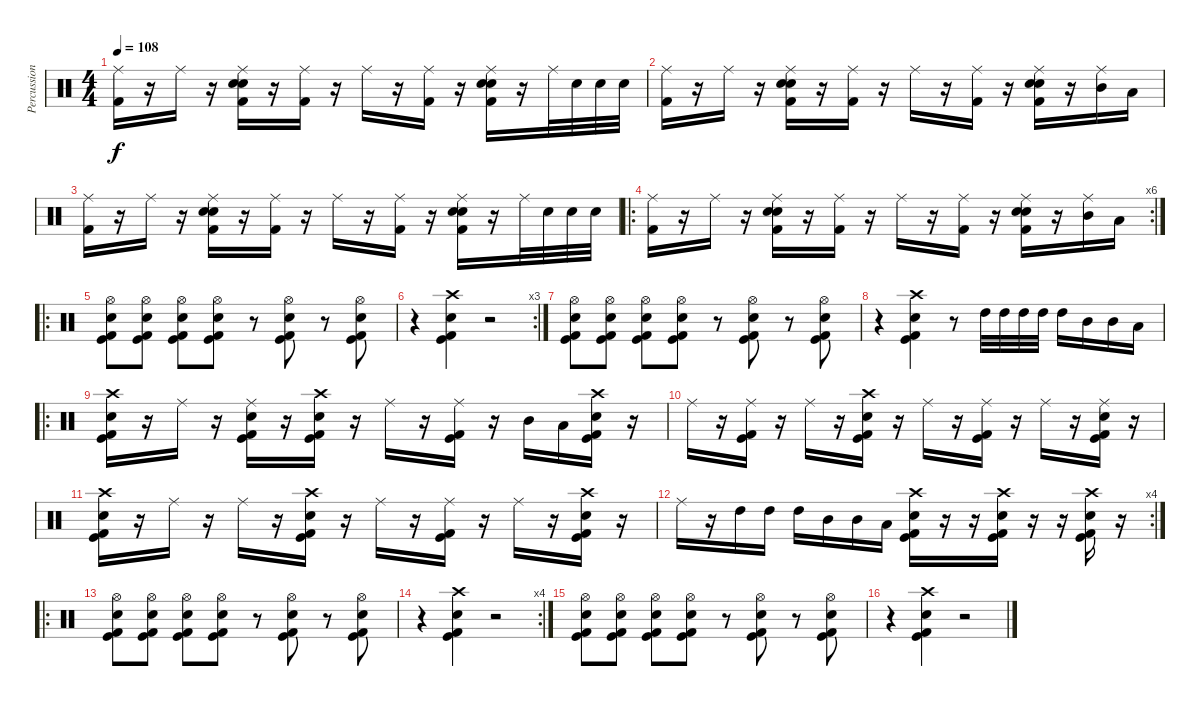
\track ("Percussions" "Percussion") {instrument percussion}
\staff {score}
\articulation defaults
\ts (4 4)
\tempo 108
\clef neutral
\ks c
("Ride (middle)" "Kick (hit) 2").16{dy f} r.16 "Ride (middle)".16 r.16 ("Ride (middle)" "Kick (hit) 2" "Snare (hit) 2" "Electric Snare (hit)").16 r.16 ("Ride (middle)" "Kick (hit) 2").16 r.16 "Ride (middle)".16 r.16 ("Ride (middle)" "Kick (hit) 2").16 r.16 ("Ride (middle)" "Kick (hit) 2" "Snare (hit) 2" "Electric Snare (hit)").16 r.16 "Ride (middle)".32 "Snare (hit) 2".32 "Snare (hit) 2".32 "Snare (hit) 2".32 |
("Ride (middle)" "Kick (hit) 2").16 r.16 "Ride (middle)".16 r.16 ("Ride (middle)" "Kick (hit) 2" "Snare (hit) 2" "Electric Snare (hit)").16 r.16 ("Ride (middle)" "Kick (hit) 2").16 r.16 "Ride (middle)".16 r.16 ("Ride (middle)" "Kick (hit) 2").16 r.16 ("Ride (middle)" "Kick (hit) 2" "Snare (hit) 2" "Electric Snare (hit)").16 r.16 ("Ride (middle)" "Mid Tom (hit)").16 "Low Tom (hit)".16 |
("Ride (middle)" "Kick (hit) 2").16 r.16 "Ride (middle)".16 r.16 ("Ride (middle)" "Kick (hit) 2" "Snare (hit) 2" "Electric Snare (hit)").16 r.16 ("Ride (middle)" "Kick (hit) 2").16 r.16 "Ride (middle)".16 r.16 ("Ride (middle)" "Kick (hit) 2").16 r.16 ("Ride (middle)" "Kick (hit) 2" "Snare (hit) 2" "Electric Snare (hit)").16 r.16 "Ride (middle)".32 "Snare (hit) 2".32 "Snare (hit) 2".32 "Snare (hit) 2".32 |
\ro
\rc 6
("Ride (middle)" "Kick (hit) 2").16 r.16 "Ride (middle)".16 r.16 ("Ride (middle)" "Kick (hit) 2" "Snare (hit) 2" "Electric Snare (hit)").16 r.16 ("Ride (middle)" "Kick (hit) 2").16 r.16 "Ride (middle)".16 r.16 ("Ride (middle)" "Kick (hit) 2").16 r.16 ("Ride (middle)" "Kick (hit) 2" "Snare (hit) 2" "Electric Snare (hit)").16 r.16 ("Ride (middle)" "Mid Tom (hit)").16 "Low Tom (hit)".16 |
\ro
("Kick (hit)" "Kick (hit) 2" "Snare (hit) 2" "Hi-Hat (open)").8 ("Kick (hit)" "Kick (hit) 2" "Snare (hit) 2" "Hi-Hat (open)").8 ("Kick (hit)" "Kick (hit) 2" "Snare (hit) 2" "Hi-Hat (open)").8 ("Kick (hit)" "Kick (hit) 2" "Snare (hit) 2" "Hi-Hat (open)").8 r.8 ("Kick (hit)" "Kick (hit) 2" "Snare (hit) 2" "Hi-Hat (open)").8 r.8 ("Kick (hit)" "Kick (hit) 2" "Snare (hit) 2" "Hi-Hat (open)").8 |
\rc 3
r.4 ("Kick (hit)" "Kick (hit) 2" "Snare (hit) 2" "Crash high (hit)").4 r.2 |
("Kick (hit)" "Kick (hit) 2" "Snare (hit) 2" "Hi-Hat (open)").8 ("Kick (hit)" "Kick (hit) 2" "Snare (hit) 2" "Hi-Hat (open)").8 ("Kick (hit)" "Kick (hit) 2" "Snare (hit) 2" "Hi-Hat (open)").8 ("Kick (hit)" "Kick (hit) 2" "Snare (hit) 2" "Hi-Hat (open)").8 r.8 ("Kick (hit)" "Kick (hit) 2" "Snare (hit) 2" "Hi-Hat (open)").8 r.8 ("Kick (hit)" "Kick (hit) 2" "Snare (hit) 2" "Hi-Hat (open)").8 |
r.4 ("Kick (hit)" "Kick (hit) 2" "Snare (hit) 2" "Crash high (hit)").4 r.8 "High Tom (hit)".32 "High Tom (hit)".32 "High Tom (hit)".32 "High Tom (hit)".32 "High Tom (hit)".16 "Mid Tom (hit)".16 "Mid Tom (hit)".16 "Low Tom (hit)".16 |
\ro
("Kick (hit) 2" "Snare (hit) 2" "Kick (hit)" "Crash high (hit)").16 r.16 "Ride (middle)".16 r.16 ("Kick (hit) 2" "Snare (hit) 2" "Ride (middle)" "Kick (hit)").16 r.16 ("Kick (hit) 2" "Snare (hit) 2" "Kick (hit)" "Crash high (hit)").16 r.16 "Ride (middle)".16 r.16 ("Kick (hit) 2" "Kick (hit)" "Ride (middle)").16 r.16 "Mid Tom (hit)".16 "Low Tom (hit)".16 ("Kick (hit) 2" "Snare (hit) 2" "Kick (hit)" "Crash high (hit)").16 r.16 |
"Ride (middle)".16 r.16 ("Kick (hit) 2" "Kick (hit)" "Ride (middle)").16 r.16 "Ride (middle)".16 r.16 ("Kick (hit) 2" "Snare (hit) 2" "Kick (hit)" "Crash high (hit)").16 r.16 "Ride (middle)".16 r.16 ("Kick (hit) 2" "Kick (hit)" "Ride (middle)").16 r.16 "Ride (middle)".16 r.16 ("Kick (hit) 2" "Snare (hit) 2" "Ride (middle)" "Kick (hit)").16 r.16 |
("Kick (hit) 2" "Snare (hit) 2" "Kick (hit)" "Crash high (hit)").16 r.16 "Ride (middle)".16 r.16 "Ride (middle)".16 r.16 ("Kick (hit) 2" "Snare (hit) 2" "Kick (hit)" "Crash high (hit)").16 r.16 "Ride (middle)".16 r.16 ("Kick (hit) 2" "Kick (hit)" "Ride (middle)").16 r.16 "Ride (middle)".16 r.16 ("Kick (hit) 2" "Snare (hit) 2" "Kick (hit)" "Crash high (hit)").16 r.16 |
\rc 4 "Ride (middle)".16
r.16 "High Tom (hit)".16 "High Tom (hit)".16 "High Tom (hit)".16 "Mid Tom (hit)".16 "Mid Tom (hit)".16 "Low Tom (hit)".16 ("Kick (hit) 2" "Snare (hit) 2" "Kick (hit)" "Crash high (hit)").16 r.16 r.16 ("Kick (hit) 2" "Snare (hit) 2" "Kick (hit)" "Crash high (hit)").16 r.16 r.16 ("Kick (hit) 2" "Snare (hit) 2" "Kick (hit)" "Crash high (hit)").16 r.16 |
\ro
("Kick (hit)" "Kick (hit) 2" "Snare (hit) 2" "Hi-Hat (open)").8 ("Kick (hit)" "Kick (hit) 2" "Snare (hit) 2" "Hi-Hat (open)").8 ("Kick (hit)" "Kick (hit) 2" "Snare (hit) 2" "Hi-Hat (open)").8 ("Kick (hit)" "Kick (hit) 2" "Snare (hit) 2" "Hi-Hat (open)").8 r.8 ("Kick (hit)" "Kick (hit) 2" "Snare (hit) 2" "Hi-Hat (open)").8 r.8 ("Kick (hit)" "Kick (hit) 2" "Snare (hit) 2" "Hi-Hat (open)").8 |
\rc 4
r.4 ("Kick (hit)" "Kick (hit) 2" "Snare (hit) 2" "Crash high (hit)").4 r.2 |
("Kick (hit)" "Kick (hit) 2" "Snare (hit) 2" "Hi-Hat (open)").8 ("Kick (hit)" "Kick (hit) 2" "Snare (hit) 2" "Hi-Hat (open)").8 ("Kick (hit)" "Kick (hit) 2" "Snare (hit) 2" "Hi-Hat (open)").8 ("Kick (hit)" "Kick (hit) 2" "Snare (hit) 2" "Hi-Hat (open)").8 r.8 ("Kick (hit)" "Kick (hit) 2" "Snare (hit) 2" "Hi-Hat (open)").8 r.8 ("Kick (hit)" "Kick (hit) 2" "Snare (hit) 2" "Hi-Hat (open)").8 |
r.4 ("Kick (hit)" "Kick (hit) 2" "Snare (hit) 2" "Crash high (hit)").4 r.2
